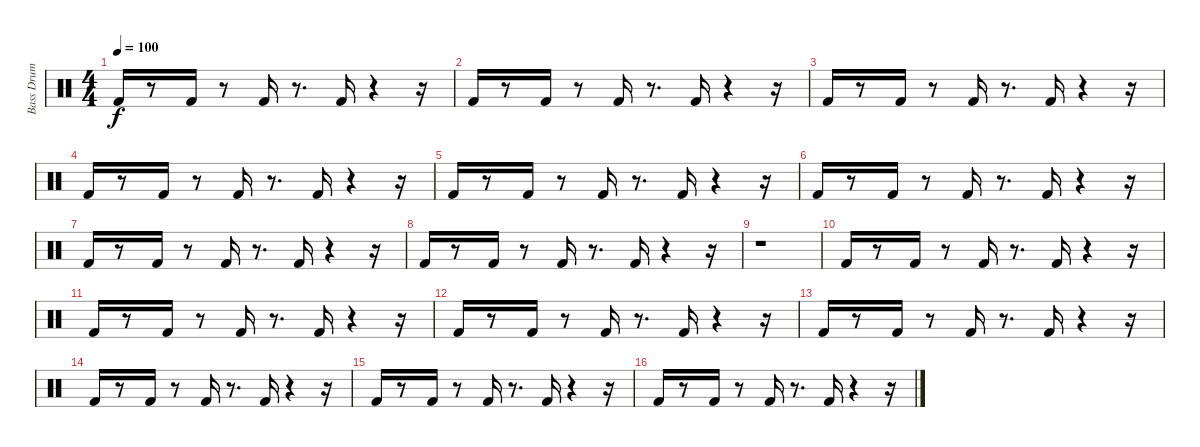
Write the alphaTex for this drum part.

\track ("Bass Drum" "Bass Drum") {instrument percussion}
\staff {score}
\articulation defaults
\ts (4 4)
\tempo 100
\clef neutral
\ks c "Kick (hit) 2".16{dy f}
r.8 "Kick (hit) 2".16 r.8 "Kick (hit) 2".16 r.8{d} "Kick (hit) 2".16 r.4 r.16 |
"Kick (hit) 2".16 r.8 "Kick (hit) 2".16 r.8 "Kick (hit) 2".16 r.8{d} "Kick (hit) 2".16 r.4 r.16 |
"Kick (hit) 2".16 r.8 "Kick (hit) 2".16 r.8 "Kick (hit) 2".16 r.8{d} "Kick (hit) 2".16 r.4 r.16 |
"Kick (hit) 2".16 r.8 "Kick (hit) 2".16 r.8 "Kick (hit) 2".16 r.8{d} "Kick (hit) 2".16 r.4 r.16 |
"Kick (hit) 2".16 r.8 "Kick (hit) 2".16 r.8 "Kick (hit) 2".16 r.8{d} "Kick (hit) 2".16 r.4 r.16 |
"Kick (hit) 2".16 r.8 "Kick (hit) 2".16 r.8 "Kick (hit) 2".16 r.8{d} "Kick (hit) 2".16 r.4 r.16 |
"Kick (hit) 2".16 r.8 "Kick (hit) 2".16 r.8 "Kick (hit) 2".16 r.8{d} "Kick (hit) 2".16 r.4 r.16 |
"Kick (hit) 2".16 r.8 "Kick (hit) 2".16 r.8 "Kick (hit) 2".16 r.8{d} "Kick (hit) 2".16 r.4 r.16 |
r.1 |
"Kick (hit) 2".16 r.8 "Kick (hit) 2".16 r.8 "Kick (hit) 2".16 r.8{d} "Kick (hit) 2".16 r.4 r.16 |
"Kick (hit) 2".16 r.8 "Kick (hit) 2".16 r.8 "Kick (hit) 2".16 r.8{d} "Kick (hit) 2".16 r.4 r.16 |
"Kick (hit) 2".16 r.8 "Kick (hit) 2".16 r.8 "Kick (hit) 2".16 r.8{d} "Kick (hit) 2".16 r.4 r.16 |
"Kick (hit) 2".16 r.8 "Kick (hit) 2".16 r.8 "Kick (hit) 2".16 r.8{d} "Kick (hit) 2".16 r.4 r.16 |
"Kick (hit) 2".16 r.8 "Kick (hit) 2".16 r.8 "Kick (hit) 2".16 r.8{d} "Kick (hit) 2".16 r.4 r.16 |
"Kick (hit) 2".16 r.8 "Kick (hit) 2".16 r.8 "Kick (hit) 2".16 r.8{d} "Kick (hit) 2".16 r.4 r.16 |
"Kick (hit) 2".16 r.8 "Kick (hit) 2".16 r.8 "Kick (hit) 2".16 r.8{d} "Kick (hit) 2".16 r.4 r.16
